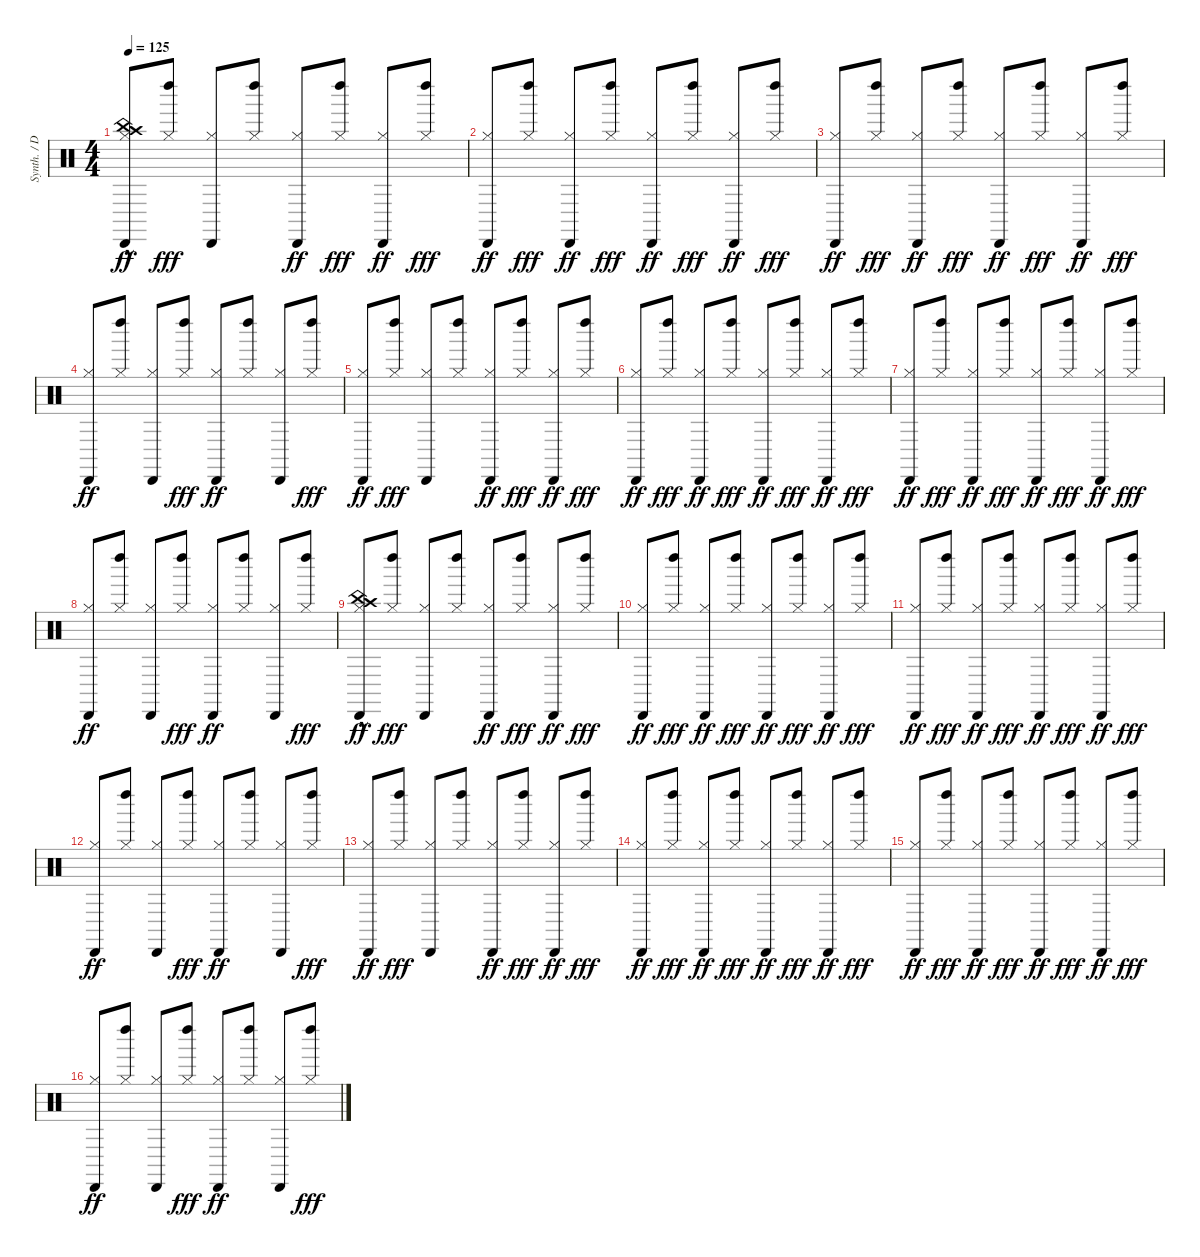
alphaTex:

\track ("Synth. / Drums" "Synth. / D") {instrument percussion}
\staff {score}
\articulation defaults
\ts (4 4)
\tempo 125
\clef neutral
\ks c
("Hi-Hat (closed)" "Crash high (hit)" "China (hit)"{hac} "Cabasa (hit)").8{dy ff} ("Hi-Hat (closed)" "Left Maraca (hit)").8{dy fff} ("Hi-Hat (closed)" "Cabasa (hit)").8 ("Hi-Hat (closed)" "Left Maraca (hit)").8 ("Hi-Hat (closed)" "Cabasa (hit)").8{dy ff} ("Hi-Hat (closed)" "Left Maraca (hit)").8{dy fff} ("Hi-Hat (closed)" "Cabasa (hit)").8{dy ff} ("Hi-Hat (closed)" "Left Maraca (hit)").8{dy fff} |
("Hi-Hat (closed)" "Cabasa (hit)").8{dy ff} ("Hi-Hat (closed)" "Left Maraca (hit)").8{dy fff} ("Hi-Hat (closed)" "Cabasa (hit)").8{dy ff} ("Hi-Hat (closed)" "Left Maraca (hit)").8{dy fff} ("Hi-Hat (closed)" "Cabasa (hit)").8{dy ff} ("Hi-Hat (closed)" "Left Maraca (hit)").8{dy fff} ("Hi-Hat (closed)" "Cabasa (hit)").8{dy ff} ("Hi-Hat (closed)" "Left Maraca (hit)").8{dy fff} |
("Hi-Hat (closed)" "Cabasa (hit)").8{dy ff} ("Hi-Hat (closed)" "Left Maraca (hit)").8{dy fff} ("Hi-Hat (closed)" "Cabasa (hit)").8{dy ff} ("Hi-Hat (closed)" "Left Maraca (hit)").8{dy fff} ("Hi-Hat (closed)" "Cabasa (hit)").8{dy ff} ("Hi-Hat (closed)" "Left Maraca (hit)").8{dy fff} ("Hi-Hat (closed)" "Cabasa (hit)").8{dy ff} ("Hi-Hat (closed)" "Left Maraca (hit)").8{dy fff} |
("Hi-Hat (closed)" "Cabasa (hit)").8{dy ff} ("Hi-Hat (closed)" "Left Maraca (hit)").8 ("Hi-Hat (closed)" "Cabasa (hit)").8 ("Hi-Hat (closed)" "Left Maraca (hit)").8{dy fff} ("Hi-Hat (closed)" "Cabasa (hit)").8{dy ff} ("Hi-Hat (closed)" "Left Maraca (hit)").8 ("Hi-Hat (closed)" "Cabasa (hit)").8 ("Hi-Hat (closed)" "Left Maraca (hit)").8{dy fff} |
("Hi-Hat (closed)" "Cabasa (hit)").8{dy ff} ("Hi-Hat (closed)" "Left Maraca (hit)").8{dy fff} ("Hi-Hat (closed)" "Cabasa (hit)").8 ("Hi-Hat (closed)" "Left Maraca (hit)").8 ("Hi-Hat (closed)" "Cabasa (hit)").8{dy ff} ("Hi-Hat (closed)" "Left Maraca (hit)").8{dy fff} ("Hi-Hat (closed)" "Cabasa (hit)").8{dy ff} ("Hi-Hat (closed)" "Left Maraca (hit)").8{dy fff} |
("Hi-Hat (closed)" "Cabasa (hit)").8{dy ff} ("Hi-Hat (closed)" "Left Maraca (hit)").8{dy fff} ("Hi-Hat (closed)" "Cabasa (hit)").8{dy ff} ("Hi-Hat (closed)" "Left Maraca (hit)").8{dy fff} ("Hi-Hat (closed)" "Cabasa (hit)").8{dy ff} ("Hi-Hat (closed)" "Left Maraca (hit)").8{dy fff} ("Hi-Hat (closed)" "Cabasa (hit)").8{dy ff} ("Hi-Hat (closed)" "Left Maraca (hit)").8{dy fff} |
("Hi-Hat (closed)" "Cabasa (hit)").8{dy ff} ("Hi-Hat (closed)" "Left Maraca (hit)").8{dy fff} ("Hi-Hat (closed)" "Cabasa (hit)").8{dy ff} ("Hi-Hat (closed)" "Left Maraca (hit)").8{dy fff} ("Hi-Hat (closed)" "Cabasa (hit)").8{dy ff} ("Hi-Hat (closed)" "Left Maraca (hit)").8{dy fff} ("Hi-Hat (closed)" "Cabasa (hit)").8{dy ff} ("Hi-Hat (closed)" "Left Maraca (hit)").8{dy fff} |
("Hi-Hat (closed)" "Cabasa (hit)").8{dy ff} ("Hi-Hat (closed)" "Left Maraca (hit)").8 ("Hi-Hat (closed)" "Cabasa (hit)").8 ("Hi-Hat (closed)" "Left Maraca (hit)").8{dy fff} ("Hi-Hat (closed)" "Cabasa (hit)").8{dy ff} ("Hi-Hat (closed)" "Left Maraca (hit)").8 ("Hi-Hat (closed)" "Cabasa (hit)").8 ("Hi-Hat (closed)" "Left Maraca (hit)").8{dy fff} |
("Hi-Hat (closed)" "Crash high (hit)" "China (hit)"{hac} "Cabasa (hit)").8{dy ff} ("Hi-Hat (closed)" "Left Maraca (hit)").8{dy fff} ("Hi-Hat (closed)" "Cabasa (hit)").8 ("Hi-Hat (closed)" "Left Maraca (hit)").8 ("Hi-Hat (closed)" "Cabasa (hit)").8{dy ff} ("Hi-Hat (closed)" "Left Maraca (hit)").8{dy fff} ("Hi-Hat (closed)" "Cabasa (hit)").8{dy ff} ("Hi-Hat (closed)" "Left Maraca (hit)").8{dy fff} |
("Hi-Hat (closed)" "Cabasa (hit)").8{dy ff} ("Hi-Hat (closed)" "Left Maraca (hit)").8{dy fff} ("Hi-Hat (closed)" "Cabasa (hit)").8{dy ff} ("Hi-Hat (closed)" "Left Maraca (hit)").8{dy fff} ("Hi-Hat (closed)" "Cabasa (hit)").8{dy ff} ("Hi-Hat (closed)" "Left Maraca (hit)").8{dy fff} ("Hi-Hat (closed)" "Cabasa (hit)").8{dy ff} ("Hi-Hat (closed)" "Left Maraca (hit)").8{dy fff} |
("Hi-Hat (closed)" "Cabasa (hit)").8{dy ff} ("Hi-Hat (closed)" "Left Maraca (hit)").8{dy fff} ("Hi-Hat (closed)" "Cabasa (hit)").8{dy ff} ("Hi-Hat (closed)" "Left Maraca (hit)").8{dy fff} ("Hi-Hat (closed)" "Cabasa (hit)").8{dy ff} ("Hi-Hat (closed)" "Left Maraca (hit)").8{dy fff} ("Hi-Hat (closed)" "Cabasa (hit)").8{dy ff} ("Hi-Hat (closed)" "Left Maraca (hit)").8{dy fff} |
("Hi-Hat (closed)" "Cabasa (hit)").8{dy ff} ("Hi-Hat (closed)" "Left Maraca (hit)").8 ("Hi-Hat (closed)" "Cabasa (hit)").8 ("Hi-Hat (closed)" "Left Maraca (hit)").8{dy fff} ("Hi-Hat (closed)" "Cabasa (hit)").8{dy ff} ("Hi-Hat (closed)" "Left Maraca (hit)").8 ("Hi-Hat (closed)" "Cabasa (hit)").8 ("Hi-Hat (closed)" "Left Maraca (hit)").8{dy fff} |
("Hi-Hat (closed)" "Cabasa (hit)").8{dy ff} ("Hi-Hat (closed)" "Left Maraca (hit)").8{dy fff} ("Hi-Hat (closed)" "Cabasa (hit)").8 ("Hi-Hat (closed)" "Left Maraca (hit)").8 ("Hi-Hat (closed)" "Cabasa (hit)").8{dy ff} ("Hi-Hat (closed)" "Left Maraca (hit)").8{dy fff} ("Hi-Hat (closed)" "Cabasa (hit)").8{dy ff} ("Hi-Hat (closed)" "Left Maraca (hit)").8{dy fff} |
("Hi-Hat (closed)" "Cabasa (hit)").8{dy ff} ("Hi-Hat (closed)" "Left Maraca (hit)").8{dy fff} ("Hi-Hat (closed)" "Cabasa (hit)").8{dy ff} ("Hi-Hat (closed)" "Left Maraca (hit)").8{dy fff} ("Hi-Hat (closed)" "Cabasa (hit)").8{dy ff} ("Hi-Hat (closed)" "Left Maraca (hit)").8{dy fff} ("Hi-Hat (closed)" "Cabasa (hit)").8{dy ff} ("Hi-Hat (closed)" "Left Maraca (hit)").8{dy fff} |
("Hi-Hat (closed)" "Cabasa (hit)").8{dy ff} ("Hi-Hat (closed)" "Left Maraca (hit)").8{dy fff} ("Hi-Hat (closed)" "Cabasa (hit)").8{dy ff} ("Hi-Hat (closed)" "Left Maraca (hit)").8{dy fff} ("Hi-Hat (closed)" "Cabasa (hit)").8{dy ff} ("Hi-Hat (closed)" "Left Maraca (hit)").8{dy fff} ("Hi-Hat (closed)" "Cabasa (hit)").8{dy ff} ("Hi-Hat (closed)" "Left Maraca (hit)").8{dy fff} |
("Hi-Hat (closed)" "Cabasa (hit)").8{dy ff} ("Hi-Hat (closed)" "Left Maraca (hit)").8 ("Hi-Hat (closed)" "Cabasa (hit)").8 ("Hi-Hat (closed)" "Left Maraca (hit)").8{dy fff} ("Hi-Hat (closed)" "Cabasa (hit)").8{dy ff} ("Hi-Hat (closed)" "Left Maraca (hit)").8 ("Hi-Hat (closed)" "Cabasa (hit)").8 ("Hi-Hat (closed)" "Left Maraca (hit)").8{dy fff}
